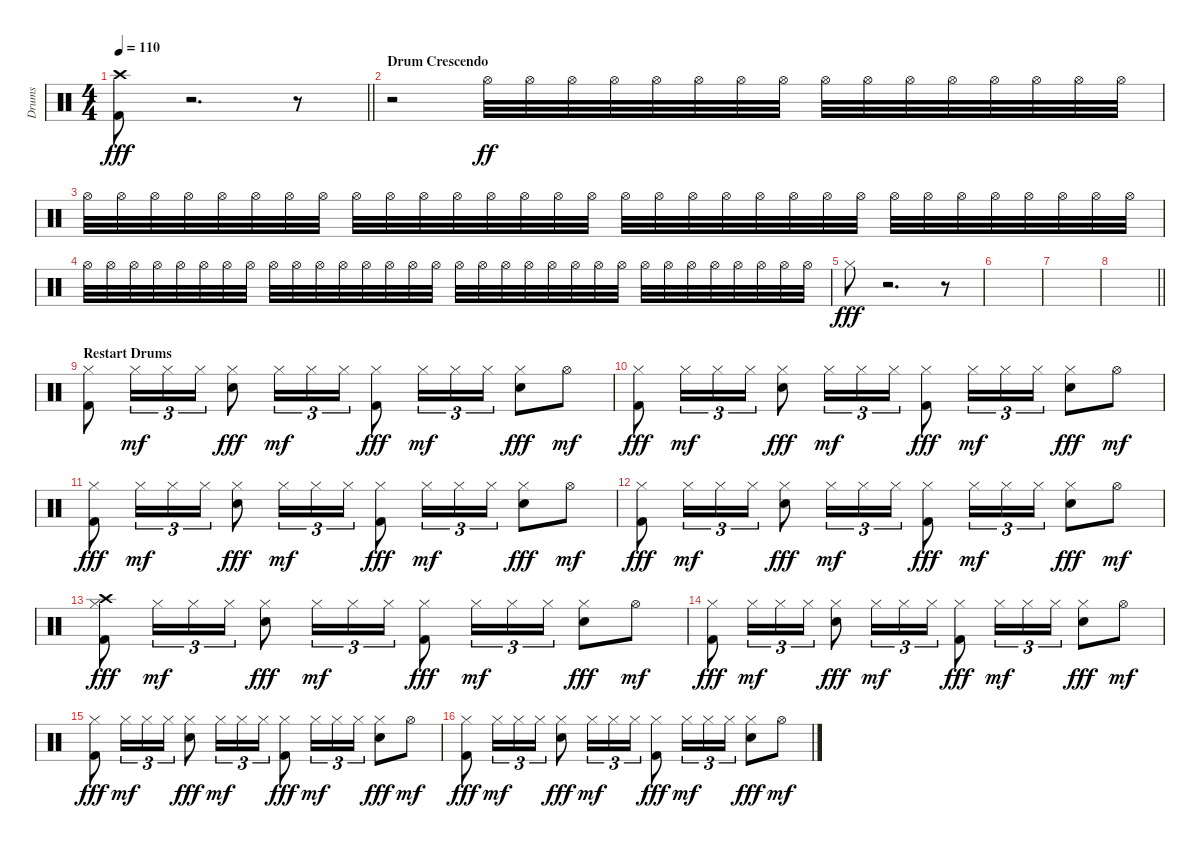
\track ("Drums" "Drums") {instrument percussion}
\staff {score}
\articulation defaults
\ts (4 4)
\tempo 110
\clef neutral
\barLineRight lightlight
\ks c
("Crash high (hit)" "Kick (hit) 2").8{dy fff} r.2{d} r.8 |
\section ("" "Drum Crescendo")
r.2{volume 4} "Hi-Hat (open)".32{dy ff volume 16} "Hi-Hat (open)".32 "Hi-Hat (open)".32 "Hi-Hat (open)".32 "Hi-Hat (open)".32 "Hi-Hat (open)".32 "Hi-Hat (open)".32 "Hi-Hat (open)".32 "Hi-Hat (open)".32 "Hi-Hat (open)".32 "Hi-Hat (open)".32 "Hi-Hat (open)".32 "Hi-Hat (open)".32 "Hi-Hat (open)".32 "Hi-Hat (open)".32 "Hi-Hat (open)".32 |
"Hi-Hat (open)".32 "Hi-Hat (open)".32 "Hi-Hat (open)".32 "Hi-Hat (open)".32 "Hi-Hat (open)".32 "Hi-Hat (open)".32 "Hi-Hat (open)".32 "Hi-Hat (open)".32 "Hi-Hat (open)".32 "Hi-Hat (open)".32 "Hi-Hat (open)".32 "Hi-Hat (open)".32 "Hi-Hat (open)".32 "Hi-Hat (open)".32 "Hi-Hat (open)".32 "Hi-Hat (open)".32 "Hi-Hat (open)".32 "Hi-Hat (open)".32 "Hi-Hat (open)".32 "Hi-Hat (open)".32 "Hi-Hat (open)".32 "Hi-Hat (open)".32 "Hi-Hat (open)".32 "Hi-Hat (open)".32 "Hi-Hat (open)".32 "Hi-Hat (open)".32 "Hi-Hat (open)".32 "Hi-Hat (open)".32 "Hi-Hat (open)".32 "Hi-Hat (open)".32 "Hi-Hat (open)".32 "Hi-Hat (open)".32 |
"Hi-Hat (open)".32 "Hi-Hat (open)".32 "Hi-Hat (open)".32 "Hi-Hat (open)".32 "Hi-Hat (open)".32 "Hi-Hat (open)".32 "Hi-Hat (open)".32 "Hi-Hat (open)".32 "Hi-Hat (open)".32 "Hi-Hat (open)".32 "Hi-Hat (open)".32 "Hi-Hat (open)".32 "Hi-Hat (open)".32 "Hi-Hat (open)".32 "Hi-Hat (open)".32 "Hi-Hat (open)".32 "Hi-Hat (open)".32 "Hi-Hat (open)".32 "Hi-Hat (open)".32 "Hi-Hat (open)".32 "Hi-Hat (open)".32 "Hi-Hat (open)".32 "Hi-Hat (open)".32 "Hi-Hat (open)".32 "Hi-Hat (open)".32 "Hi-Hat (open)".32 "Hi-Hat (open)".32 "Hi-Hat (open)".32 "Hi-Hat (open)".32 "Hi-Hat (open)".32 "Hi-Hat (open)".32 "Hi-Hat (open)".32 |
"Hi-Hat (closed)".8{dy fff} r.2{d} r.8 |
|
|
\barLineRight lightlight
|
\section ("" "Restart Drums")
("Hi-Hat (closed)" "Kick (hit) 2").8 "Hi-Hat (closed)".16{tu (3 2) dy mf} "Hi-Hat (closed)".16{tu (3 2)} "Hi-Hat (closed)".16{tu (3 2)} ("Hi-Hat (closed)" "Snare (hit) 2").8{dy fff} "Hi-Hat (closed)".16{tu (3 2) dy mf} "Hi-Hat (closed)".16{tu (3 2)} "Hi-Hat (closed)".16{tu (3 2)} ("Hi-Hat (closed)" "Kick (hit) 2").8{dy fff} "Hi-Hat (closed)".16{tu (3 2) dy mf} "Hi-Hat (closed)".16{tu (3 2)} "Hi-Hat (closed)".16{tu (3 2)} ("Hi-Hat (closed)" "Snare (hit) 2").8{dy fff} "Hi-Hat (open)".8{dy mf} |
("Hi-Hat (closed)" "Kick (hit) 2").8{dy fff} "Hi-Hat (closed)".16{tu (3 2) dy mf} "Hi-Hat (closed)".16{tu (3 2)} "Hi-Hat (closed)".16{tu (3 2)} ("Hi-Hat (closed)" "Snare (hit) 2").8{dy fff} "Hi-Hat (closed)".16{tu (3 2) dy mf} "Hi-Hat (closed)".16{tu (3 2)} "Hi-Hat (closed)".16{tu (3 2)} ("Hi-Hat (closed)" "Kick (hit) 2").8{dy fff} "Hi-Hat (closed)".16{tu (3 2) dy mf} "Hi-Hat (closed)".16{tu (3 2)} "Hi-Hat (closed)".16{tu (3 2)} ("Hi-Hat (closed)" "Snare (hit) 2").8{dy fff} "Hi-Hat (open)".8{dy mf} |
("Hi-Hat (closed)" "Kick (hit) 2").8{dy fff} "Hi-Hat (closed)".16{tu (3 2) dy mf} "Hi-Hat (closed)".16{tu (3 2)} "Hi-Hat (closed)".16{tu (3 2)} ("Hi-Hat (closed)" "Snare (hit) 2").8{dy fff} "Hi-Hat (closed)".16{tu (3 2) dy mf} "Hi-Hat (closed)".16{tu (3 2)} "Hi-Hat (closed)".16{tu (3 2)} ("Hi-Hat (closed)" "Kick (hit) 2").8{dy fff} "Hi-Hat (closed)".16{tu (3 2) dy mf} "Hi-Hat (closed)".16{tu (3 2)} "Hi-Hat (closed)".16{tu (3 2)} ("Hi-Hat (closed)" "Snare (hit) 2").8{dy fff} "Hi-Hat (open)".8{dy mf} |
("Hi-Hat (closed)" "Kick (hit) 2").8{dy fff} "Hi-Hat (closed)".16{tu (3 2) dy mf} "Hi-Hat (closed)".16{tu (3 2)} "Hi-Hat (closed)".16{tu (3 2)} ("Hi-Hat (closed)" "Snare (hit) 2").8{dy fff} "Hi-Hat (closed)".16{tu (3 2) dy mf} "Hi-Hat (closed)".16{tu (3 2)} "Hi-Hat (closed)".16{tu (3 2)} ("Hi-Hat (closed)" "Kick (hit) 2").8{dy fff} "Hi-Hat (closed)".16{tu (3 2) dy mf} "Hi-Hat (closed)".16{tu (3 2)} "Hi-Hat (closed)".16{tu (3 2)} ("Hi-Hat (closed)" "Snare (hit) 2").8{dy fff} "Hi-Hat (open)".8{dy mf} |
("Hi-Hat (closed)" "Crash high (hit)" "Kick (hit) 2").8{dy fff} "Hi-Hat (closed)".16{tu (3 2) dy mf} "Hi-Hat (closed)".16{tu (3 2)} "Hi-Hat (closed)".16{tu (3 2)} ("Hi-Hat (closed)" "Snare (hit) 2").8{dy fff} "Hi-Hat (closed)".16{tu (3 2) dy mf} "Hi-Hat (closed)".16{tu (3 2)} "Hi-Hat (closed)".16{tu (3 2)} ("Hi-Hat (closed)" "Kick (hit) 2").8{dy fff} "Hi-Hat (closed)".16{tu (3 2) dy mf} "Hi-Hat (closed)".16{tu (3 2)} "Hi-Hat (closed)".16{tu (3 2)} ("Hi-Hat (closed)" "Snare (hit) 2").8{dy fff} "Hi-Hat (open)".8{dy mf} |
("Hi-Hat (closed)" "Kick (hit) 2").8{dy fff} "Hi-Hat (closed)".16{tu (3 2) dy mf} "Hi-Hat (closed)".16{tu (3 2)} "Hi-Hat (closed)".16{tu (3 2)} ("Hi-Hat (closed)" "Snare (hit) 2").8{dy fff} "Hi-Hat (closed)".16{tu (3 2) dy mf} "Hi-Hat (closed)".16{tu (3 2)} "Hi-Hat (closed)".16{tu (3 2)} ("Hi-Hat (closed)" "Kick (hit) 2").8{dy fff} "Hi-Hat (closed)".16{tu (3 2) dy mf} "Hi-Hat (closed)".16{tu (3 2)} "Hi-Hat (closed)".16{tu (3 2)} ("Hi-Hat (closed)" "Snare (hit) 2").8{dy fff} "Hi-Hat (open)".8{dy mf} |
("Hi-Hat (closed)" "Kick (hit) 2").8{dy fff} "Hi-Hat (closed)".16{tu (3 2) dy mf} "Hi-Hat (closed)".16{tu (3 2)} "Hi-Hat (closed)".16{tu (3 2)} ("Hi-Hat (closed)" "Snare (hit) 2").8{dy fff} "Hi-Hat (closed)".16{tu (3 2) dy mf} "Hi-Hat (closed)".16{tu (3 2)} "Hi-Hat (closed)".16{tu (3 2)} ("Hi-Hat (closed)" "Kick (hit) 2").8{dy fff} "Hi-Hat (closed)".16{tu (3 2) dy mf} "Hi-Hat (closed)".16{tu (3 2)} "Hi-Hat (closed)".16{tu (3 2)} ("Hi-Hat (closed)" "Snare (hit) 2").8{dy fff} "Hi-Hat (open)".8{dy mf} |
("Hi-Hat (closed)" "Kick (hit) 2").8{dy fff} "Hi-Hat (closed)".16{tu (3 2) dy mf} "Hi-Hat (closed)".16{tu (3 2)} "Hi-Hat (closed)".16{tu (3 2)} ("Hi-Hat (closed)" "Snare (hit) 2").8{dy fff} "Hi-Hat (closed)".16{tu (3 2) dy mf} "Hi-Hat (closed)".16{tu (3 2)} "Hi-Hat (closed)".16{tu (3 2)} ("Hi-Hat (closed)" "Kick (hit) 2").8{dy fff} "Hi-Hat (closed)".16{tu (3 2) dy mf} "Hi-Hat (closed)".16{tu (3 2)} "Hi-Hat (closed)".16{tu (3 2)} ("Hi-Hat (closed)" "Snare (hit) 2").8{dy fff} "Hi-Hat (open)".8{dy mf}
